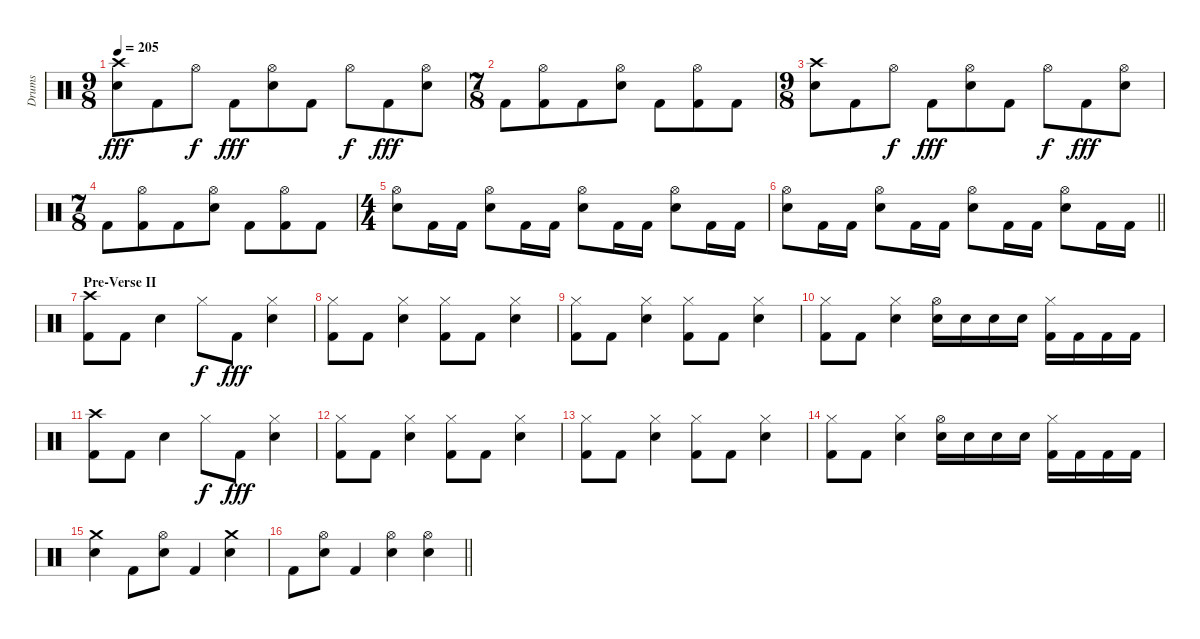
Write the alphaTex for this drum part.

\track ("Drums" "Drums") {instrument percussion}
\staff {score}
\articulation defaults
\ts (9 8)
\tempo 205
\clef neutral
\ks c
("Crash high (hit)" "Snare (hit) 2").8{dy fff} "Kick (hit) 2".8 "Hi-Hat (open)".8{dy f} "Kick (hit) 2".8{dy fff} ("Hi-Hat (open)" "Snare (hit) 2").8 "Kick (hit) 2".8 "Hi-Hat (open)".8{dy f} "Kick (hit) 2".8{dy fff} ("Hi-Hat (open)" "Snare (hit) 2").8 |
\ts (7 8)
"Kick (hit) 2".8 ("Hi-Hat (open)" "Kick (hit) 2").8 "Kick (hit) 2".8 ("Hi-Hat (open)" "Snare (hit) 2").8 "Kick (hit) 2".8 ("Hi-Hat (open)" "Kick (hit) 2").8 "Kick (hit) 2".8 |
\ts (9 8)
("Crash high (hit)" "Snare (hit) 2").8 "Kick (hit) 2".8 "Hi-Hat (open)".8{dy f} "Kick (hit) 2".8{dy fff} ("Hi-Hat (open)" "Snare (hit) 2").8 "Kick (hit) 2".8 "Hi-Hat (open)".8{dy f} "Kick (hit) 2".8{dy fff} ("Hi-Hat (open)" "Snare (hit) 2").8 |
\ts (7 8)
"Kick (hit) 2".8 ("Hi-Hat (open)" "Kick (hit) 2").8 "Kick (hit) 2".8 ("Hi-Hat (open)" "Snare (hit) 2").8 "Kick (hit) 2".8 ("Hi-Hat (open)" "Kick (hit) 2").8 "Kick (hit) 2".8 |
\ts (4 4)
("Hi-Hat (open)" "Snare (hit) 2").8 "Kick (hit) 2".16 "Kick (hit) 2".16 ("Hi-Hat (open)" "Snare (hit) 2").8 "Kick (hit) 2".16 "Kick (hit) 2".16 ("Hi-Hat (open)" "Snare (hit) 2").8 "Kick (hit) 2".16 "Kick (hit) 2".16 ("Hi-Hat (open)" "Snare (hit) 2").8 "Kick (hit) 2".16 "Kick (hit) 2".16 |
\barLineRight lightlight
("Hi-Hat (open)" "Snare (hit) 2").8 "Kick (hit) 2".16 "Kick (hit) 2".16 ("Hi-Hat (open)" "Snare (hit) 2").8 "Kick (hit) 2".16 "Kick (hit) 2".16 ("Hi-Hat (open)" "Snare (hit) 2").8 "Kick (hit) 2".16 "Kick (hit) 2".16 ("Hi-Hat (open)" "Snare (hit) 2").8 "Kick (hit) 2".16 "Kick (hit) 2".16 |
\section ("" "Pre-Verse II")
("Crash high (hit)" "Kick (hit) 2").8 "Kick (hit) 2".8 "Snare (hit) 2".4 "Hi-Hat (closed)".8{dy f} "Kick (hit) 2".8{dy fff} ("Hi-Hat (closed)" "Snare (hit) 2").4 |
("Hi-Hat (closed)" "Kick (hit) 2").8 "Kick (hit) 2".8 ("Hi-Hat (closed)" "Snare (hit) 2").4 ("Hi-Hat (closed)" "Kick (hit) 2").8 "Kick (hit) 2".8 ("Hi-Hat (closed)" "Snare (hit) 2").4 |
("Hi-Hat (closed)" "Kick (hit) 2").8 "Kick (hit) 2".8 ("Hi-Hat (closed)" "Snare (hit) 2").4 ("Hi-Hat (closed)" "Kick (hit) 2").8 "Kick (hit) 2".8 ("Hi-Hat (closed)" "Snare (hit) 2").4 |
("Hi-Hat (closed)" "Kick (hit) 2").8 "Kick (hit) 2".8 ("Hi-Hat (closed)" "Snare (hit) 2").4 ("Hi-Hat (open)" "Snare (hit) 2").16 "Snare (hit) 2".16 "Snare (hit) 2".16 "Snare (hit) 2".16 ("Hi-Hat (closed)" "Kick (hit) 2").16 "Kick (hit) 2".16 "Kick (hit) 2".16 "Kick (hit) 2".16 |
("Crash high (hit)" "Kick (hit) 2").8 "Kick (hit) 2".8 "Snare (hit) 2".4 "Hi-Hat (closed)".8{dy f} "Kick (hit) 2".8{dy fff} ("Hi-Hat (closed)" "Snare (hit) 2").4 |
("Hi-Hat (closed)" "Kick (hit) 2").8 "Kick (hit) 2".8 ("Hi-Hat (closed)" "Snare (hit) 2").4 ("Hi-Hat (closed)" "Kick (hit) 2").8 "Kick (hit) 2".8 ("Hi-Hat (closed)" "Snare (hit) 2").4 |
("Hi-Hat (closed)" "Kick (hit) 2").8 "Kick (hit) 2".8 ("Hi-Hat (closed)" "Snare (hit) 2").4 ("Hi-Hat (closed)" "Kick (hit) 2").8 "Kick (hit) 2".8 ("Hi-Hat (closed)" "Snare (hit) 2").4 |
("Hi-Hat (closed)" "Kick (hit) 2").8 "Kick (hit) 2".8 ("Hi-Hat (closed)" "Snare (hit) 2").4 ("Hi-Hat (open)" "Snare (hit) 2").16 "Snare (hit) 2".16 "Snare (hit) 2".16 "Snare (hit) 2".16 ("Hi-Hat (closed)" "Kick (hit) 2").16 "Kick (hit) 2".16 "Kick (hit) 2".16 "Kick (hit) 2".16 |
("Crash medium (hit)" "Snare (hit) 2").4 "Kick (hit) 2".8 ("Hi-Hat (open)" "Snare (hit) 2").8 "Kick (hit) 2".4 ("Crash medium (hit)" "Snare (hit) 2").4 |
\barLineRight lightlight "Kick (hit) 2".8
("Hi-Hat (open)" "Snare (hit) 2").8 "Kick (hit) 2".4 ("Hi-Hat (open)" "Snare (hit) 2").4 ("Hi-Hat (open)" "Snare (hit) 2").4
